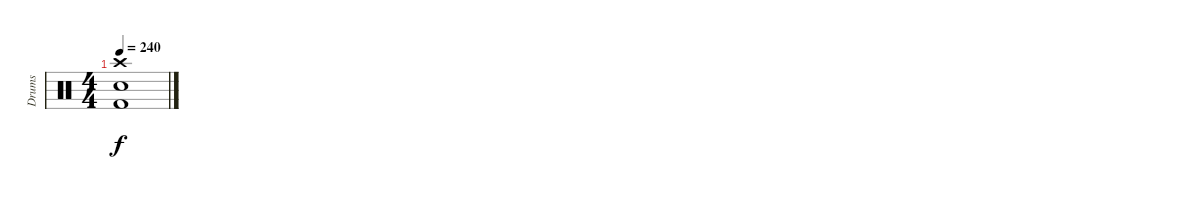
\track ("Drums" "Drums") {instrument percussion}
\staff {score}
\articulation defaults
\ts (4 4)
\tempo 240
\clef neutral
\ks c
("Crash high (hit)" "Snare (hit) 2" "Kick (hit) 2").1{dy f}
